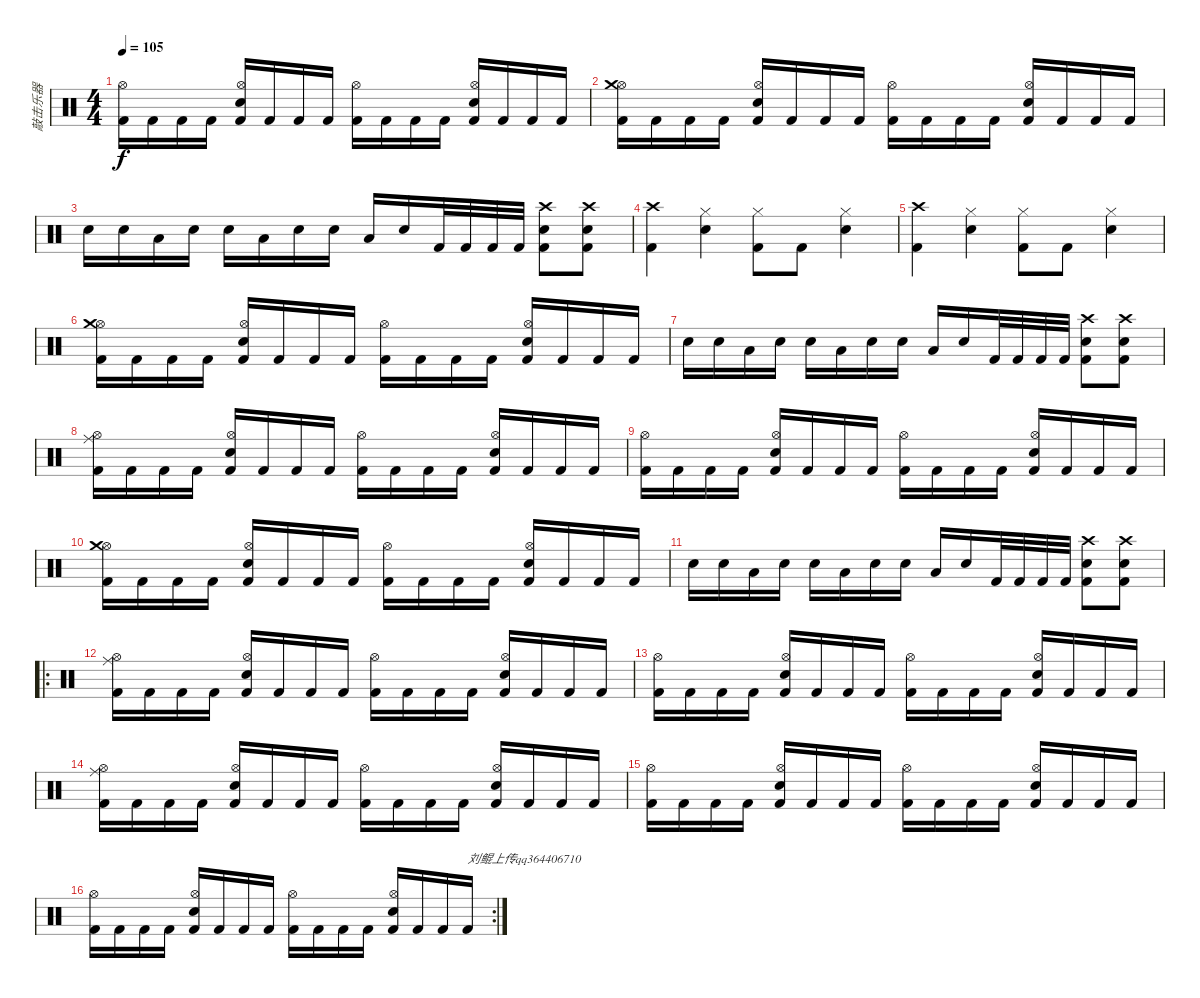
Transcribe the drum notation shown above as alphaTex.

\track ("敲击乐器" "敲击乐器") {instrument percussion}
\staff {score}
\articulation defaults
\ts (4 4)
\tempo 105
\clef neutral
\ks c
("Kick (hit) 2" "Hi-Hat (open)").16{dy f} "Kick (hit) 2".16 "Kick (hit) 2".16 "Kick (hit) 2".16 ("Kick (hit) 2" "Electric Snare (hit)" "Hi-Hat (open)").16 "Kick (hit) 2".16 "Kick (hit) 2".16 "Kick (hit) 2".16 ("Kick (hit) 2" "Hi-Hat (open)").16 "Kick (hit) 2".16 "Kick (hit) 2".16 "Kick (hit) 2".16 ("Kick (hit) 2" "Electric Snare (hit)" "Hi-Hat (open)").16 "Kick (hit) 2".16 "Kick (hit) 2".16 "Kick (hit) 2".16 |
("Kick (hit) 2" "Hi-Hat (open)" "Crash medium (hit)").16 "Kick (hit) 2".16 "Kick (hit) 2".16 "Kick (hit) 2".16 ("Kick (hit) 2" "Electric Snare (hit)" "Hi-Hat (open)").16 "Kick (hit) 2".16 "Kick (hit) 2".16 "Kick (hit) 2".16 ("Kick (hit) 2" "Hi-Hat (open)").16 "Kick (hit) 2".16 "Kick (hit) 2".16 "Kick (hit) 2".16 ("Kick (hit) 2" "Electric Snare (hit)" "Hi-Hat (open)").16 "Kick (hit) 2".16 "Kick (hit) 2".16 "Kick (hit) 2".16 |
"Electric Snare (hit)".16 "Electric Snare (hit)".16 "Low Tom (hit)".16 "Electric Snare (hit)".16 "Electric Snare (hit)".16 "Low Tom (hit)".16 "Electric Snare (hit)".16 "Electric Snare (hit)".16 "Low Tom (hit)".16 "Electric Snare (hit)".16 "Kick (hit) 2".32 "Kick (hit) 2".32 "Kick (hit) 2".32 "Kick (hit) 2".32 ("Kick (hit) 2" "Electric Snare (hit)" "Crash high (hit)").8 ("Kick (hit) 2" "Electric Snare (hit)" "Crash high (hit)").8 |
("Crash high (hit)" "Kick (hit) 2").4 ("Hi-Hat (closed)" "Snare (hit) 2").4 ("Hi-Hat (closed)" "Kick (hit) 2").8 "Kick (hit) 2".8 ("Hi-Hat (closed)" "Snare (hit) 2").4 |
("Crash high (hit)" "Kick (hit) 2").4 ("Hi-Hat (closed)" "Snare (hit) 2").4 ("Hi-Hat (closed)" "Kick (hit) 2").8 "Kick (hit) 2".8 ("Hi-Hat (closed)" "Snare (hit) 2").4 |
("Kick (hit) 2" "Hi-Hat (open)" "Crash medium (hit)").16 "Kick (hit) 2".16 "Kick (hit) 2".16 "Kick (hit) 2".16 ("Kick (hit) 2" "Electric Snare (hit)" "Hi-Hat (open)").16 "Kick (hit) 2".16 "Kick (hit) 2".16 "Kick (hit) 2".16 ("Kick (hit) 2" "Hi-Hat (open)").16 "Kick (hit) 2".16 "Kick (hit) 2".16 "Kick (hit) 2".16 ("Kick (hit) 2" "Electric Snare (hit)" "Hi-Hat (open)").16 "Kick (hit) 2".16 "Kick (hit) 2".16 "Kick (hit) 2".16 |
"Electric Snare (hit)".16 "Electric Snare (hit)".16 "Low Tom (hit)".16 "Electric Snare (hit)".16 "Electric Snare (hit)".16 "Low Tom (hit)".16 "Electric Snare (hit)".16 "Electric Snare (hit)".16 "Low Tom (hit)".16 "Electric Snare (hit)".16 "Kick (hit) 2".32 "Kick (hit) 2".32 "Kick (hit) 2".32 "Kick (hit) 2".32 ("Kick (hit) 2" "Electric Snare (hit)" "Crash high (hit)").8 ("Kick (hit) 2" "Electric Snare (hit)" "Crash high (hit)").8 |
("Kick (hit) 2" "Hi-Hat (open)" "Ride (middle)").16 "Kick (hit) 2".16 "Kick (hit) 2".16 "Kick (hit) 2".16 ("Kick (hit) 2" "Electric Snare (hit)" "Hi-Hat (open)").16 "Kick (hit) 2".16 "Kick (hit) 2".16 "Kick (hit) 2".16 ("Kick (hit) 2" "Hi-Hat (open)").16 "Kick (hit) 2".16 "Kick (hit) 2".16 "Kick (hit) 2".16 ("Kick (hit) 2" "Electric Snare (hit)" "Hi-Hat (open)").16 "Kick (hit) 2".16 "Kick (hit) 2".16 "Kick (hit) 2".16 |
("Kick (hit) 2" "Hi-Hat (open)").16 "Kick (hit) 2".16 "Kick (hit) 2".16 "Kick (hit) 2".16 ("Kick (hit) 2" "Electric Snare (hit)" "Hi-Hat (open)").16 "Kick (hit) 2".16 "Kick (hit) 2".16 "Kick (hit) 2".16 ("Kick (hit) 2" "Hi-Hat (open)").16 "Kick (hit) 2".16 "Kick (hit) 2".16 "Kick (hit) 2".16 ("Kick (hit) 2" "Electric Snare (hit)" "Hi-Hat (open)").16 "Kick (hit) 2".16 "Kick (hit) 2".16 "Kick (hit) 2".16 |
("Kick (hit) 2" "Hi-Hat (open)" "Crash medium (hit)").16 "Kick (hit) 2".16 "Kick (hit) 2".16 "Kick (hit) 2".16 ("Kick (hit) 2" "Electric Snare (hit)" "Hi-Hat (open)").16 "Kick (hit) 2".16 "Kick (hit) 2".16 "Kick (hit) 2".16 ("Kick (hit) 2" "Hi-Hat (open)").16 "Kick (hit) 2".16 "Kick (hit) 2".16 "Kick (hit) 2".16 ("Kick (hit) 2" "Electric Snare (hit)" "Hi-Hat (open)").16 "Kick (hit) 2".16 "Kick (hit) 2".16 "Kick (hit) 2".16 |
"Electric Snare (hit)".16 "Electric Snare (hit)".16 "Low Tom (hit)".16 "Electric Snare (hit)".16 "Electric Snare (hit)".16 "Low Tom (hit)".16 "Electric Snare (hit)".16 "Electric Snare (hit)".16 "Low Tom (hit)".16 "Electric Snare (hit)".16 "Kick (hit) 2".32 "Kick (hit) 2".32 "Kick (hit) 2".32 "Kick (hit) 2".32 ("Kick (hit) 2" "Electric Snare (hit)" "Crash high (hit)").8 ("Kick (hit) 2" "Electric Snare (hit)" "Crash high (hit)").8 |
\ro
("Kick (hit) 2" "Hi-Hat (open)" "Ride (middle)").16 "Kick (hit) 2".16 "Kick (hit) 2".16 "Kick (hit) 2".16 ("Kick (hit) 2" "Electric Snare (hit)" "Hi-Hat (open)").16 "Kick (hit) 2".16 "Kick (hit) 2".16 "Kick (hit) 2".16 ("Kick (hit) 2" "Hi-Hat (open)").16 "Kick (hit) 2".16 "Kick (hit) 2".16 "Kick (hit) 2".16 ("Kick (hit) 2" "Electric Snare (hit)" "Hi-Hat (open)").16 "Kick (hit) 2".16 "Kick (hit) 2".16 "Kick (hit) 2".16 |
("Kick (hit) 2" "Hi-Hat (open)").16 "Kick (hit) 2".16 "Kick (hit) 2".16 "Kick (hit) 2".16 ("Kick (hit) 2" "Electric Snare (hit)" "Hi-Hat (open)").16 "Kick (hit) 2".16 "Kick (hit) 2".16 "Kick (hit) 2".16 ("Kick (hit) 2" "Hi-Hat (open)").16 "Kick (hit) 2".16 "Kick (hit) 2".16 "Kick (hit) 2".16 ("Kick (hit) 2" "Electric Snare (hit)" "Hi-Hat (open)").16 "Kick (hit) 2".16 "Kick (hit) 2".16 "Kick (hit) 2".16 |
("Kick (hit) 2" "Hi-Hat (open)" "Ride (middle)").16 "Kick (hit) 2".16 "Kick (hit) 2".16 "Kick (hit) 2".16 ("Kick (hit) 2" "Electric Snare (hit)" "Hi-Hat (open)").16 "Kick (hit) 2".16 "Kick (hit) 2".16 "Kick (hit) 2".16 ("Kick (hit) 2" "Hi-Hat (open)").16 "Kick (hit) 2".16 "Kick (hit) 2".16 "Kick (hit) 2".16 ("Kick (hit) 2" "Electric Snare (hit)" "Hi-Hat (open)").16 "Kick (hit) 2".16 "Kick (hit) 2".16 "Kick (hit) 2".16 |
("Kick (hit) 2" "Hi-Hat (open)").16 "Kick (hit) 2".16 "Kick (hit) 2".16 "Kick (hit) 2".16 ("Kick (hit) 2" "Electric Snare (hit)" "Hi-Hat (open)").16 "Kick (hit) 2".16 "Kick (hit) 2".16 "Kick (hit) 2".16 ("Kick (hit) 2" "Hi-Hat (open)").16 "Kick (hit) 2".16 "Kick (hit) 2".16 "Kick (hit) 2".16 ("Kick (hit) 2" "Electric Snare (hit)" "Hi-Hat (open)").16 "Kick (hit) 2".16 "Kick (hit) 2".16 "Kick (hit) 2".16 |
\rc 2
("Kick (hit) 2" "Hi-Hat (open)").16 "Kick (hit) 2".16 "Kick (hit) 2".16 "Kick (hit) 2".16 ("Kick (hit) 2" "Electric Snare (hit)" "Hi-Hat (open)").16 "Kick (hit) 2".16 "Kick (hit) 2".16 "Kick (hit) 2".16 ("Kick (hit) 2" "Hi-Hat (open)").16 "Kick (hit) 2".16 "Kick (hit) 2".16 "Kick (hit) 2".16 ("Kick (hit) 2" "Electric Snare (hit)" "Hi-Hat (open)").16 "Kick (hit) 2".16 "Kick (hit) 2".16 "Kick (hit) 2".16{txt "刘鲲上传qq364406710"}
